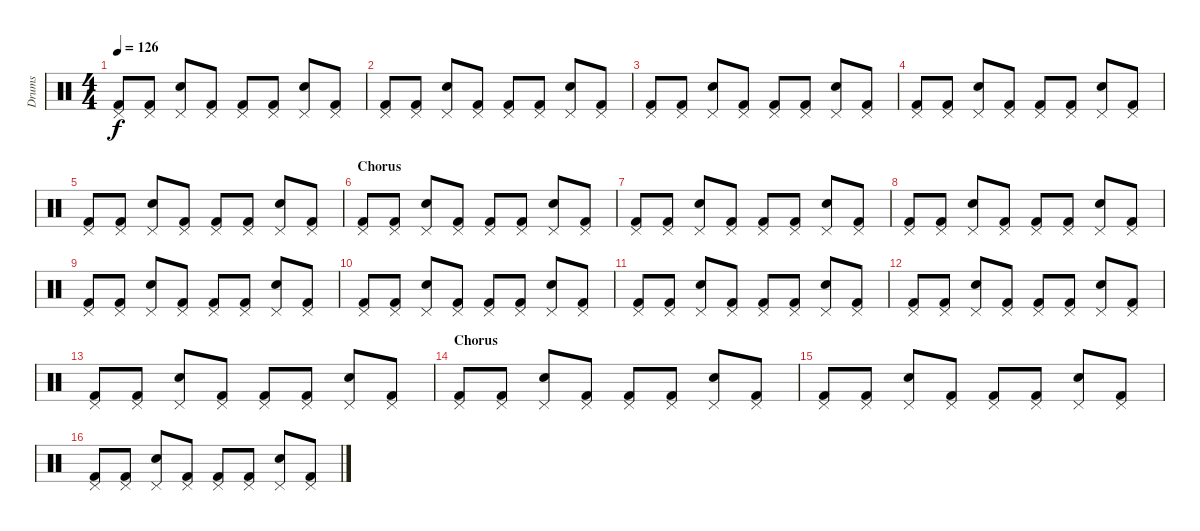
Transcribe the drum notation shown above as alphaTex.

\track ("Drums" "Drums") {instrument percussion}
\staff {score}
\articulation defaults
\ts (4 4)
\tempo 126
\clef neutral
\ks c
("Kick (hit) 2" "Pedal Hi-Hat (hit)").8{dy f} ("Kick (hit) 2" "Pedal Hi-Hat (hit)").8 ("Snare (hit) 2" "Pedal Hi-Hat (hit)").8 ("Kick (hit) 2" "Pedal Hi-Hat (hit)").8 ("Kick (hit) 2" "Pedal Hi-Hat (hit)").8 ("Kick (hit) 2" "Pedal Hi-Hat (hit)").8 ("Snare (hit) 2" "Pedal Hi-Hat (hit)").8 ("Kick (hit) 2" "Pedal Hi-Hat (hit)").8 |
("Kick (hit) 2" "Pedal Hi-Hat (hit)").8 ("Kick (hit) 2" "Pedal Hi-Hat (hit)").8 ("Snare (hit) 2" "Pedal Hi-Hat (hit)").8 ("Kick (hit) 2" "Pedal Hi-Hat (hit)").8 ("Kick (hit) 2" "Pedal Hi-Hat (hit)").8 ("Kick (hit) 2" "Pedal Hi-Hat (hit)").8 ("Snare (hit) 2" "Pedal Hi-Hat (hit)").8 ("Kick (hit) 2" "Pedal Hi-Hat (hit)").8 |
("Kick (hit) 2" "Pedal Hi-Hat (hit)").8 ("Kick (hit) 2" "Pedal Hi-Hat (hit)").8 ("Snare (hit) 2" "Pedal Hi-Hat (hit)").8 ("Kick (hit) 2" "Pedal Hi-Hat (hit)").8 ("Kick (hit) 2" "Pedal Hi-Hat (hit)").8 ("Kick (hit) 2" "Pedal Hi-Hat (hit)").8 ("Snare (hit) 2" "Pedal Hi-Hat (hit)").8 ("Kick (hit) 2" "Pedal Hi-Hat (hit)").8 |
("Kick (hit) 2" "Pedal Hi-Hat (hit)").8 ("Kick (hit) 2" "Pedal Hi-Hat (hit)").8 ("Snare (hit) 2" "Pedal Hi-Hat (hit)").8 ("Kick (hit) 2" "Pedal Hi-Hat (hit)").8 ("Kick (hit) 2" "Pedal Hi-Hat (hit)").8 ("Kick (hit) 2" "Pedal Hi-Hat (hit)").8 ("Snare (hit) 2" "Pedal Hi-Hat (hit)").8 ("Kick (hit) 2" "Pedal Hi-Hat (hit)").8 |
("Kick (hit) 2" "Pedal Hi-Hat (hit)").8 ("Kick (hit) 2" "Pedal Hi-Hat (hit)").8 ("Snare (hit) 2" "Pedal Hi-Hat (hit)").8 ("Kick (hit) 2" "Pedal Hi-Hat (hit)").8 ("Kick (hit) 2" "Pedal Hi-Hat (hit)").8 ("Kick (hit) 2" "Pedal Hi-Hat (hit)").8 ("Snare (hit) 2" "Pedal Hi-Hat (hit)").8 ("Kick (hit) 2" "Pedal Hi-Hat (hit)").8 |
\section ("" "Chorus")
("Kick (hit) 2" "Pedal Hi-Hat (hit)").8 ("Kick (hit) 2" "Pedal Hi-Hat (hit)").8 ("Snare (hit) 2" "Pedal Hi-Hat (hit)").8 ("Kick (hit) 2" "Pedal Hi-Hat (hit)").8 ("Kick (hit) 2" "Pedal Hi-Hat (hit)").8 ("Kick (hit) 2" "Pedal Hi-Hat (hit)").8 ("Snare (hit) 2" "Pedal Hi-Hat (hit)").8 ("Kick (hit) 2" "Pedal Hi-Hat (hit)").8 |
("Kick (hit) 2" "Pedal Hi-Hat (hit)").8 ("Kick (hit) 2" "Pedal Hi-Hat (hit)").8 ("Snare (hit) 2" "Pedal Hi-Hat (hit)").8 ("Kick (hit) 2" "Pedal Hi-Hat (hit)").8 ("Kick (hit) 2" "Pedal Hi-Hat (hit)").8 ("Kick (hit) 2" "Pedal Hi-Hat (hit)").8 ("Snare (hit) 2" "Pedal Hi-Hat (hit)").8 ("Kick (hit) 2" "Pedal Hi-Hat (hit)").8 |
("Kick (hit) 2" "Pedal Hi-Hat (hit)").8 ("Kick (hit) 2" "Pedal Hi-Hat (hit)").8 ("Snare (hit) 2" "Pedal Hi-Hat (hit)").8 ("Kick (hit) 2" "Pedal Hi-Hat (hit)").8 ("Kick (hit) 2" "Pedal Hi-Hat (hit)").8 ("Kick (hit) 2" "Pedal Hi-Hat (hit)").8 ("Snare (hit) 2" "Pedal Hi-Hat (hit)").8 ("Kick (hit) 2" "Pedal Hi-Hat (hit)").8 |
("Kick (hit) 2" "Pedal Hi-Hat (hit)").8 ("Kick (hit) 2" "Pedal Hi-Hat (hit)").8 ("Snare (hit) 2" "Pedal Hi-Hat (hit)").8 ("Kick (hit) 2" "Pedal Hi-Hat (hit)").8 ("Kick (hit) 2" "Pedal Hi-Hat (hit)").8 ("Kick (hit) 2" "Pedal Hi-Hat (hit)").8 ("Snare (hit) 2" "Pedal Hi-Hat (hit)").8 ("Kick (hit) 2" "Pedal Hi-Hat (hit)").8 |
("Kick (hit) 2" "Pedal Hi-Hat (hit)").8 ("Kick (hit) 2" "Pedal Hi-Hat (hit)").8 ("Snare (hit) 2" "Pedal Hi-Hat (hit)").8 ("Kick (hit) 2" "Pedal Hi-Hat (hit)").8 ("Kick (hit) 2" "Pedal Hi-Hat (hit)").8 ("Kick (hit) 2" "Pedal Hi-Hat (hit)").8 ("Snare (hit) 2" "Pedal Hi-Hat (hit)").8 ("Kick (hit) 2" "Pedal Hi-Hat (hit)").8 |
("Kick (hit) 2" "Pedal Hi-Hat (hit)").8 ("Kick (hit) 2" "Pedal Hi-Hat (hit)").8 ("Snare (hit) 2" "Pedal Hi-Hat (hit)").8 ("Kick (hit) 2" "Pedal Hi-Hat (hit)").8 ("Kick (hit) 2" "Pedal Hi-Hat (hit)").8 ("Kick (hit) 2" "Pedal Hi-Hat (hit)").8 ("Snare (hit) 2" "Pedal Hi-Hat (hit)").8 ("Kick (hit) 2" "Pedal Hi-Hat (hit)").8 |
("Kick (hit) 2" "Pedal Hi-Hat (hit)").8 ("Kick (hit) 2" "Pedal Hi-Hat (hit)").8 ("Snare (hit) 2" "Pedal Hi-Hat (hit)").8 ("Kick (hit) 2" "Pedal Hi-Hat (hit)").8 ("Kick (hit) 2" "Pedal Hi-Hat (hit)").8 ("Kick (hit) 2" "Pedal Hi-Hat (hit)").8 ("Snare (hit) 2" "Pedal Hi-Hat (hit)").8 ("Kick (hit) 2" "Pedal Hi-Hat (hit)").8 |
("Kick (hit) 2" "Pedal Hi-Hat (hit)").8 ("Kick (hit) 2" "Pedal Hi-Hat (hit)").8 ("Snare (hit) 2" "Pedal Hi-Hat (hit)").8 ("Kick (hit) 2" "Pedal Hi-Hat (hit)").8 ("Kick (hit) 2" "Pedal Hi-Hat (hit)").8 ("Kick (hit) 2" "Pedal Hi-Hat (hit)").8 ("Snare (hit) 2" "Pedal Hi-Hat (hit)").8 ("Kick (hit) 2" "Pedal Hi-Hat (hit)").8 |
\section ("" "Chorus")
("Kick (hit) 2" "Pedal Hi-Hat (hit)").8 ("Kick (hit) 2" "Pedal Hi-Hat (hit)").8 ("Snare (hit) 2" "Pedal Hi-Hat (hit)").8 ("Kick (hit) 2" "Pedal Hi-Hat (hit)").8 ("Kick (hit) 2" "Pedal Hi-Hat (hit)").8 ("Kick (hit) 2" "Pedal Hi-Hat (hit)").8 ("Snare (hit) 2" "Pedal Hi-Hat (hit)").8 ("Kick (hit) 2" "Pedal Hi-Hat (hit)").8 |
("Kick (hit) 2" "Pedal Hi-Hat (hit)").8 ("Kick (hit) 2" "Pedal Hi-Hat (hit)").8 ("Snare (hit) 2" "Pedal Hi-Hat (hit)").8 ("Kick (hit) 2" "Pedal Hi-Hat (hit)").8 ("Kick (hit) 2" "Pedal Hi-Hat (hit)").8 ("Kick (hit) 2" "Pedal Hi-Hat (hit)").8 ("Snare (hit) 2" "Pedal Hi-Hat (hit)").8 ("Kick (hit) 2" "Pedal Hi-Hat (hit)").8 |
("Kick (hit) 2" "Pedal Hi-Hat (hit)").8 ("Kick (hit) 2" "Pedal Hi-Hat (hit)").8 ("Snare (hit) 2" "Pedal Hi-Hat (hit)").8 ("Kick (hit) 2" "Pedal Hi-Hat (hit)").8 ("Kick (hit) 2" "Pedal Hi-Hat (hit)").8 ("Kick (hit) 2" "Pedal Hi-Hat (hit)").8 ("Snare (hit) 2" "Pedal Hi-Hat (hit)").8 ("Kick (hit) 2" "Pedal Hi-Hat (hit)").8
